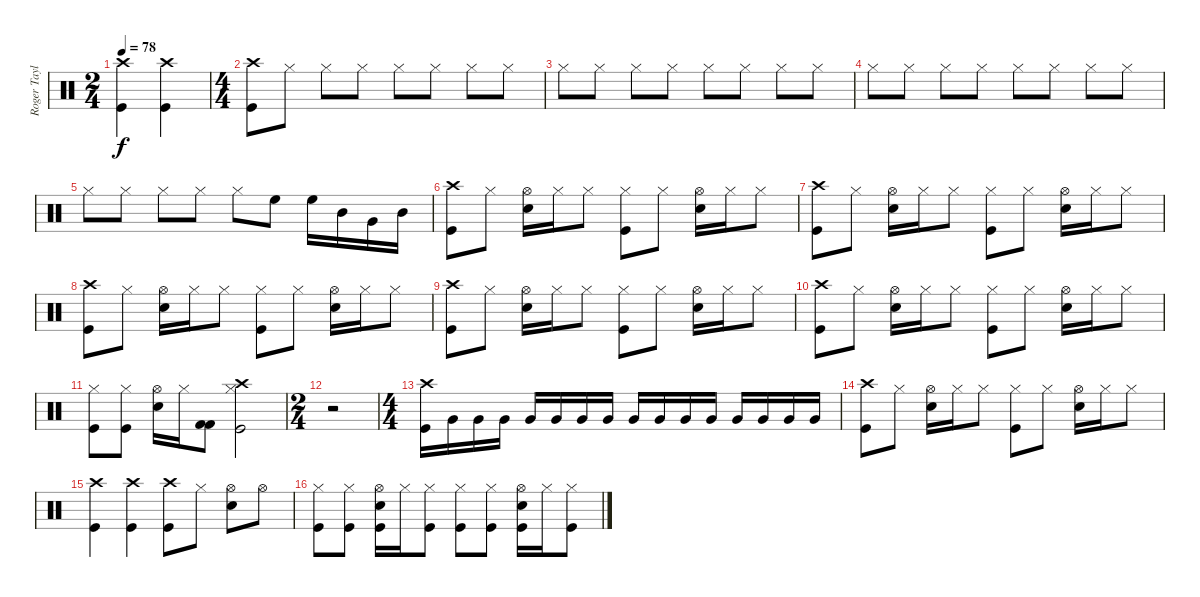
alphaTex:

\track ("Roger Taylor - Drums" "Roger Tayl") {instrument percussion}
\staff {score}
\articulation defaults
\ts (2 4)
\tempo 78
\clef neutral
\ks c
("Kick (hit)" "Crash high (hit)").4{dy f} ("Kick (hit)" "Crash high (hit)").4 |
\ts (4 4)
("Kick (hit)" "Crash high (hit)").8 "Hi-Hat (closed)".8 "Hi-Hat (closed)".8 "Hi-Hat (closed)".8 "Hi-Hat (closed)".8 "Hi-Hat (closed)".8 "Hi-Hat (closed)".8 "Hi-Hat (closed)".8 |
"Hi-Hat (closed)".8 "Hi-Hat (closed)".8 "Hi-Hat (closed)".8 "Hi-Hat (closed)".8 "Hi-Hat (closed)".8 "Hi-Hat (closed)".8 "Hi-Hat (closed)".8 "Hi-Hat (closed)".8 |
"Hi-Hat (closed)".8 "Hi-Hat (closed)".8 "Hi-Hat (closed)".8 "Hi-Hat (closed)".8 "Hi-Hat (closed)".8 "Hi-Hat (closed)".8 "Hi-Hat (closed)".8 "Hi-Hat (closed)".8 |
"Hi-Hat (closed)".8 "Hi-Hat (closed)".8 "Hi-Hat (closed)".8 "Hi-Hat (closed)".8 "Hi-Hat (closed)".8 "High Floor Tom (hit)".8 "High Floor Tom (hit)".16 "Mid Tom (hit)".16 "Very Low Tom (hit)".16 "Mid Tom (hit)".16 |
("Kick (hit)" "Crash high (hit)").8 "Hi-Hat (closed)".8 ("Electric Snare (hit)" "Hi-Hat (open)").16 "Hi-Hat (closed)".16 "Hi-Hat (closed)".8 ("Hi-Hat (closed)" "Kick (hit)").8 "Hi-Hat (closed)".8 ("Electric Snare (hit)" "Hi-Hat (open)").16 "Hi-Hat (closed)".16 "Hi-Hat (closed)".8 |
("Kick (hit)" "Crash high (hit)").8 "Hi-Hat (closed)".8 ("Electric Snare (hit)" "Hi-Hat (open)").16 "Hi-Hat (closed)".16 "Hi-Hat (closed)".8 ("Hi-Hat (closed)" "Kick (hit)").8 "Hi-Hat (closed)".8 ("Electric Snare (hit)" "Hi-Hat (open)").16 "Hi-Hat (closed)".16 "Hi-Hat (closed)".8 |
("Kick (hit)" "Crash high (hit)").8 "Hi-Hat (closed)".8 ("Electric Snare (hit)" "Hi-Hat (open)").16 "Hi-Hat (closed)".16 "Hi-Hat (closed)".8 ("Hi-Hat (closed)" "Kick (hit)").8 "Hi-Hat (closed)".8 ("Electric Snare (hit)" "Hi-Hat (open)").16 "Hi-Hat (closed)".16 "Hi-Hat (closed)".8 |
("Kick (hit)" "Crash high (hit)").8 "Hi-Hat (closed)".8 ("Electric Snare (hit)" "Hi-Hat (open)").16 "Hi-Hat (closed)".16 "Hi-Hat (closed)".8 ("Hi-Hat (closed)" "Kick (hit)").8 "Hi-Hat (closed)".8 ("Electric Snare (hit)" "Hi-Hat (open)").16 "Hi-Hat (closed)".16 "Hi-Hat (closed)".8 |
("Kick (hit)" "Crash high (hit)").8 "Hi-Hat (closed)".8 ("Electric Snare (hit)" "Hi-Hat (open)").16 "Hi-Hat (closed)".16 "Hi-Hat (closed)".8 ("Hi-Hat (closed)" "Kick (hit)").8 "Hi-Hat (closed)".8 ("Electric Snare (hit)" "Hi-Hat (open)").16 "Hi-Hat (closed)".16 "Hi-Hat (closed)".8 |
("Hi-Hat (closed)" "Kick (hit)").8 ("Hi-Hat (closed)" "Kick (hit)").8 ("Electric Snare (hit)" "Hi-Hat (open)").16 "Hi-Hat (closed)".16 ("Kick (hit) 2" "Kick (hit) 2").8 ("Crash high (hit)" "Kick (hit)" "Hi-Hat (closed)").2 |
\ts (2 4)
r.2 |
\ts (4 4)
("Kick (hit)" "Crash high (hit)").16 "Very Low Tom (hit)".16 "Very Low Tom (hit)".16 "Very Low Tom (hit)".16 "Very Low Tom (hit)".16 "Very Low Tom (hit)".16 "Very Low Tom (hit)".16 "Very Low Tom (hit)".16 "Very Low Tom (hit)".16 "Very Low Tom (hit)".16 "Very Low Tom (hit)".16 "Very Low Tom (hit)".16 "Very Low Tom (hit)".16 "Very Low Tom (hit)".16 "Very Low Tom (hit)".16 "Very Low Tom (hit)".16 |
("Kick (hit)" "Crash high (hit)").8 "Hi-Hat (closed)".8 ("Electric Snare (hit)" "Hi-Hat (open)").16 "Hi-Hat (closed)".16 "Hi-Hat (closed)".8 ("Hi-Hat (closed)" "Kick (hit)").8 "Hi-Hat (closed)".8 ("Electric Snare (hit)" "Hi-Hat (open)").16 "Hi-Hat (closed)".16 "Hi-Hat (closed)".8 |
("Kick (hit)" "Crash high (hit)").4 ("Kick (hit)" "Crash high (hit)").4 ("Crash high (hit)" "Kick (hit)").8 "Hi-Hat (closed)".8 ("Hi-Hat (open)" "Electric Snare (hit)").8 "Hi-Hat (open)".8 |
("Hi-Hat (closed)" "Kick (hit)").8 ("Hi-Hat (closed)" "Kick (hit)").8 ("Hi-Hat (open)" "Kick (hit)" "Electric Snare (hit)").16 "Hi-Hat (closed)".16 ("Hi-Hat (closed)" "Kick (hit)").8 ("Hi-Hat (closed)" "Kick (hit)").8 ("Hi-Hat (closed)" "Kick (hit)").8 ("Hi-Hat (open)" "Kick (hit)" "Electric Snare (hit)").16 "Hi-Hat (closed)".16 ("Hi-Hat (closed)" "Kick (hit)").8
